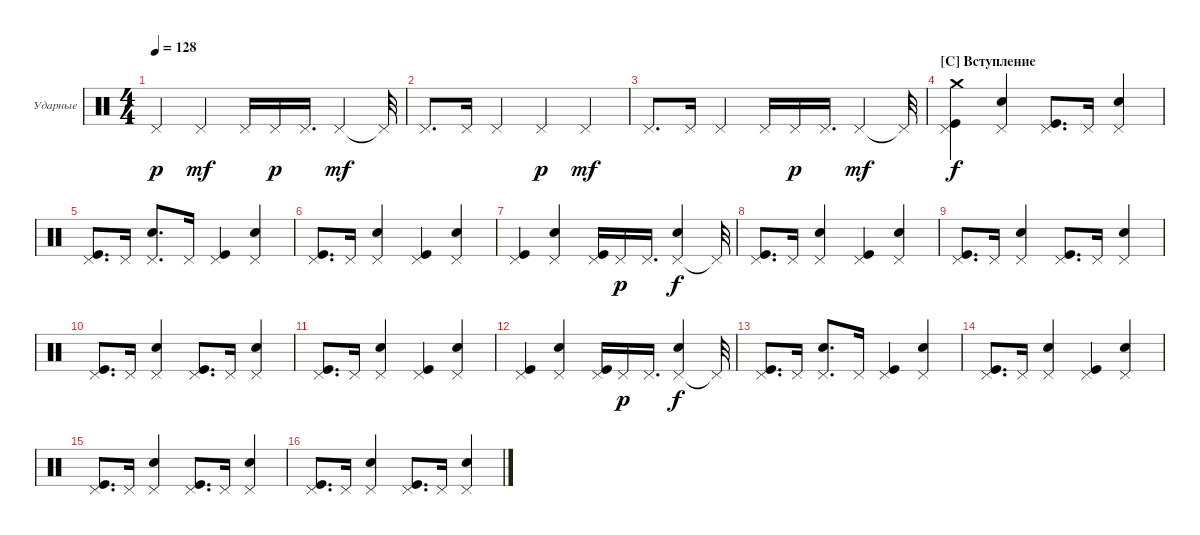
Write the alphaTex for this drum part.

\defaultSystemsLayout 4
\bracketExtendMode groupsimilarinstruments
\firstSystemTrackNameOrientation horizontal
\otherSystemsTrackNameOrientation horizontal
\track ("Е. Кулаков" "Ударные") {instrument percussion}
\staff {score}
\articulation defaults
\ts (4 4)
\tempo 128
\clef neutral
\ks c "Pedal Hi-Hat (hit)".4{dy p} "Pedal Hi-Hat (hit)".4{dy mf} "Pedal Hi-Hat (hit)".16 "Pedal Hi-Hat (hit)".16{dy p} "Pedal Hi-Hat (hit)".16{d} "Pedal Hi-Hat (hit)".4{dy mf} "Pedal Hi-Hat (hit)"{t}.32
|
"Pedal Hi-Hat (hit)".8{d} "Pedal Hi-Hat (hit)".16 "Pedal Hi-Hat (hit)".4 "Pedal Hi-Hat (hit)".4{dy p} "Pedal Hi-Hat (hit)".4{dy mf} |
"Pedal Hi-Hat (hit)".8{d} "Pedal Hi-Hat (hit)".16 "Pedal Hi-Hat (hit)".4 "Pedal Hi-Hat (hit)".16 "Pedal Hi-Hat (hit)".16{dy p} "Pedal Hi-Hat (hit)".16{d} "Pedal Hi-Hat (hit)".4{dy mf} "Pedal Hi-Hat (hit)"{t}.32 |
\section ("C" "Вступление")
("Kick (hit)" "Crash medium (hit)" "Pedal Hi-Hat (hit)").4{dy f} ("Pedal Hi-Hat (hit)" "Snare (hit) 2").4 ("Pedal Hi-Hat (hit)" "Kick (hit)").8{d} "Pedal Hi-Hat (hit)".16 ("Pedal Hi-Hat (hit)" "Snare (hit) 2").4 |
("Pedal Hi-Hat (hit)" "Kick (hit)").8{d} "Pedal Hi-Hat (hit)".16 ("Pedal Hi-Hat (hit)" "Snare (hit) 2").8{d} "Pedal Hi-Hat (hit)".16 ("Pedal Hi-Hat (hit)" "Kick (hit)").4 ("Pedal Hi-Hat (hit)" "Snare (hit) 2").4 |
("Pedal Hi-Hat (hit)" "Kick (hit)").8{d} "Pedal Hi-Hat (hit)".16 ("Pedal Hi-Hat (hit)" "Snare (hit) 2").4 ("Pedal Hi-Hat (hit)" "Kick (hit)").4 ("Pedal Hi-Hat (hit)" "Snare (hit) 2").4 |
("Pedal Hi-Hat (hit)" "Kick (hit)").4 ("Pedal Hi-Hat (hit)" "Snare (hit) 2").4 ("Pedal Hi-Hat (hit)" "Kick (hit)").16 "Pedal Hi-Hat (hit)".16{dy p} "Pedal Hi-Hat (hit)".16{d} ("Pedal Hi-Hat (hit)" "Snare (hit) 2").4{dy f} "Pedal Hi-Hat (hit)"{t}.32 |
("Pedal Hi-Hat (hit)" "Kick (hit)").8{d} "Pedal Hi-Hat (hit)".16 ("Pedal Hi-Hat (hit)" "Snare (hit) 2").4 ("Pedal Hi-Hat (hit)" "Kick (hit)").4 ("Pedal Hi-Hat (hit)" "Snare (hit) 2").4 |
("Pedal Hi-Hat (hit)" "Kick (hit)").8{d} "Pedal Hi-Hat (hit)".16 ("Pedal Hi-Hat (hit)" "Snare (hit) 2").4 ("Pedal Hi-Hat (hit)" "Kick (hit)").8{d} "Pedal Hi-Hat (hit)".16 ("Pedal Hi-Hat (hit)" "Snare (hit) 2").4 |
("Pedal Hi-Hat (hit)" "Kick (hit)").8{d} "Pedal Hi-Hat (hit)".16 ("Pedal Hi-Hat (hit)" "Snare (hit) 2").4 ("Pedal Hi-Hat (hit)" "Kick (hit)").8{d} "Pedal Hi-Hat (hit)".16 ("Pedal Hi-Hat (hit)" "Snare (hit) 2").4 |
("Pedal Hi-Hat (hit)" "Kick (hit)").8{d} "Pedal Hi-Hat (hit)".16 ("Pedal Hi-Hat (hit)" "Snare (hit) 2").4 ("Pedal Hi-Hat (hit)" "Kick (hit)").4 ("Pedal Hi-Hat (hit)" "Snare (hit) 2").4 |
("Pedal Hi-Hat (hit)" "Kick (hit)").4 ("Pedal Hi-Hat (hit)" "Snare (hit) 2").4 ("Pedal Hi-Hat (hit)" "Kick (hit)").16 "Pedal Hi-Hat (hit)".16{dy p} "Pedal Hi-Hat (hit)".16{d} ("Pedal Hi-Hat (hit)" "Snare (hit) 2").4{dy f} "Pedal Hi-Hat (hit)"{t}.32 |
("Pedal Hi-Hat (hit)" "Kick (hit)").8{d} "Pedal Hi-Hat (hit)".16 ("Pedal Hi-Hat (hit)" "Snare (hit) 2").8{d} "Pedal Hi-Hat (hit)".16 ("Pedal Hi-Hat (hit)" "Kick (hit)").4 ("Pedal Hi-Hat (hit)" "Snare (hit) 2").4 |
("Pedal Hi-Hat (hit)" "Kick (hit)").8{d} "Pedal Hi-Hat (hit)".16 ("Pedal Hi-Hat (hit)" "Snare (hit) 2").4 ("Pedal Hi-Hat (hit)" "Kick (hit)").4 ("Pedal Hi-Hat (hit)" "Snare (hit) 2").4 |
("Pedal Hi-Hat (hit)" "Kick (hit)").8{d} "Pedal Hi-Hat (hit)".16 ("Pedal Hi-Hat (hit)" "Snare (hit) 2").4 ("Pedal Hi-Hat (hit)" "Kick (hit)").8{d} "Pedal Hi-Hat (hit)".16 ("Pedal Hi-Hat (hit)" "Snare (hit) 2").4 |
("Pedal Hi-Hat (hit)" "Kick (hit)").8{d} "Pedal Hi-Hat (hit)".16 ("Pedal Hi-Hat (hit)" "Snare (hit) 2").4 ("Pedal Hi-Hat (hit)" "Kick (hit)").8{d} "Pedal Hi-Hat (hit)".16 ("Pedal Hi-Hat (hit)" "Snare (hit) 2").4
